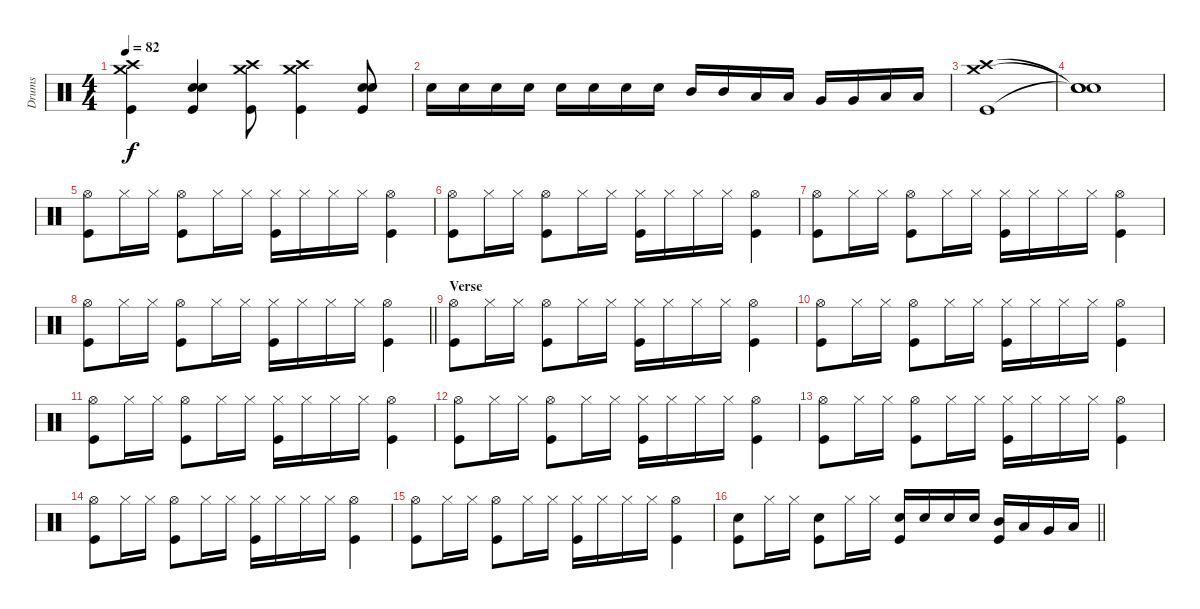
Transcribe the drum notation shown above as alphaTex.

\track ("Drums" "Drums") {instrument percussion}
\staff {score}
\articulation defaults
\ts (4 4)
\tempo 82
\clef neutral
\ks c
("Crash medium (hit)" "Crash high (hit)" "Kick (hit)").4{dy f} ("Snare (hit) 2" "Snare (hit) 2" "Kick (hit)").4 ("Crash medium (hit)" "Crash high (hit)" "Kick (hit)").8 ("Crash medium (hit)" "Crash high (hit)" "Kick (hit)").4 ("Snare (hit) 2" "Snare (hit) 2" "Kick (hit)").8 |
"Snare (hit) 2".16 "Snare (hit) 2".16 "Snare (hit) 2".16 "Snare (hit) 2".16 "Snare (hit) 2".16 "Snare (hit) 2".16 "Snare (hit) 2".16 "Snare (hit) 2".16 "Mid Tom (hit)".16 "Mid Tom (hit)".16 "Low Tom (hit)".16 "Low Tom (hit)".16 "Very Low Tom (hit)".16 "Very Low Tom (hit)".16 "Low Floor Tom (hit)".16 "Low Floor Tom (hit)".16 |
("Crash medium (hit)" "Crash high (hit)" "Kick (hit)").1 |
("Snare (hit)"{t} "Snare (hit)"{t} "Snare (hit)"{t}).1 |
("Hi-Hat (open)" "Kick (hit)").8 "Hi-Hat (closed)".16 "Hi-Hat (closed)".16 ("Hi-Hat (open)" "Kick (hit)").8 "Hi-Hat (closed)".16 "Hi-Hat (closed)".16 ("Hi-Hat (closed)" "Kick (hit)").16 "Hi-Hat (closed)".16 "Hi-Hat (closed)".16 "Hi-Hat (closed)".16 ("Hi-Hat (open)" "Kick (hit)").4 |
("Hi-Hat (open)" "Kick (hit)").8 "Hi-Hat (closed)".16 "Hi-Hat (closed)".16 ("Hi-Hat (open)" "Kick (hit)").8 "Hi-Hat (closed)".16 "Hi-Hat (closed)".16 ("Hi-Hat (closed)" "Kick (hit)").16 "Hi-Hat (closed)".16 "Hi-Hat (closed)".16 "Hi-Hat (closed)".16 ("Hi-Hat (open)" "Kick (hit)").4 |
("Hi-Hat (open)" "Kick (hit)").8 "Hi-Hat (closed)".16 "Hi-Hat (closed)".16 ("Hi-Hat (open)" "Kick (hit)").8 "Hi-Hat (closed)".16 "Hi-Hat (closed)".16 ("Hi-Hat (closed)" "Kick (hit)").16 "Hi-Hat (closed)".16 "Hi-Hat (closed)".16 "Hi-Hat (closed)".16 ("Hi-Hat (open)" "Kick (hit)").4 |
\barLineRight lightlight
("Hi-Hat (open)" "Kick (hit)").8 "Hi-Hat (closed)".16 "Hi-Hat (closed)".16 ("Hi-Hat (open)" "Kick (hit)").8 "Hi-Hat (closed)".16 "Hi-Hat (closed)".16 ("Hi-Hat (closed)" "Kick (hit)").16 "Hi-Hat (closed)".16 "Hi-Hat (closed)".16 "Hi-Hat (closed)".16 ("Hi-Hat (open)" "Kick (hit)").4 |
\section ("" "Verse")
("Hi-Hat (open)" "Kick (hit)").8 "Hi-Hat (closed)".16 "Hi-Hat (closed)".16 ("Hi-Hat (open)" "Kick (hit)").8 "Hi-Hat (closed)".16 "Hi-Hat (closed)".16 ("Hi-Hat (closed)" "Kick (hit)").16 "Hi-Hat (closed)".16 "Hi-Hat (closed)".16 "Hi-Hat (closed)".16 ("Hi-Hat (open)" "Kick (hit)").4 |
("Hi-Hat (open)" "Kick (hit)").8 "Hi-Hat (closed)".16 "Hi-Hat (closed)".16 ("Hi-Hat (open)" "Kick (hit)").8 "Hi-Hat (closed)".16 "Hi-Hat (closed)".16 ("Hi-Hat (closed)" "Kick (hit)").16 "Hi-Hat (closed)".16 "Hi-Hat (closed)".16 "Hi-Hat (closed)".16 ("Hi-Hat (open)" "Kick (hit)").4 |
("Hi-Hat (open)" "Kick (hit)").8 "Hi-Hat (closed)".16 "Hi-Hat (closed)".16 ("Hi-Hat (open)" "Kick (hit)").8 "Hi-Hat (closed)".16 "Hi-Hat (closed)".16 ("Hi-Hat (closed)" "Kick (hit)").16 "Hi-Hat (closed)".16 "Hi-Hat (closed)".16 "Hi-Hat (closed)".16 ("Hi-Hat (open)" "Kick (hit)").4 |
("Hi-Hat (open)" "Kick (hit)").8 "Hi-Hat (closed)".16 "Hi-Hat (closed)".16 ("Hi-Hat (open)" "Kick (hit)").8 "Hi-Hat (closed)".16 "Hi-Hat (closed)".16 ("Hi-Hat (closed)" "Kick (hit)").16 "Hi-Hat (closed)".16 "Hi-Hat (closed)".16 "Hi-Hat (closed)".16 ("Hi-Hat (open)" "Kick (hit)").4 |
("Hi-Hat (open)" "Kick (hit)").8 "Hi-Hat (closed)".16 "Hi-Hat (closed)".16 ("Hi-Hat (open)" "Kick (hit)").8 "Hi-Hat (closed)".16 "Hi-Hat (closed)".16 ("Hi-Hat (closed)" "Kick (hit)").16 "Hi-Hat (closed)".16 "Hi-Hat (closed)".16 "Hi-Hat (closed)".16 ("Hi-Hat (open)" "Kick (hit)").4 |
("Hi-Hat (open)" "Kick (hit)").8 "Hi-Hat (closed)".16 "Hi-Hat (closed)".16 ("Hi-Hat (open)" "Kick (hit)").8 "Hi-Hat (closed)".16 "Hi-Hat (closed)".16 ("Hi-Hat (closed)" "Kick (hit)").16 "Hi-Hat (closed)".16 "Hi-Hat (closed)".16 "Hi-Hat (closed)".16 ("Hi-Hat (open)" "Kick (hit)").4 |
("Hi-Hat (open)" "Kick (hit)").8 "Hi-Hat (closed)".16 "Hi-Hat (closed)".16 ("Hi-Hat (open)" "Kick (hit)").8 "Hi-Hat (closed)".16 "Hi-Hat (closed)".16 ("Hi-Hat (closed)" "Kick (hit)").16 "Hi-Hat (closed)".16 "Hi-Hat (closed)".16 "Hi-Hat (closed)".16 ("Hi-Hat (open)" "Kick (hit)").4 |
\barLineRight lightlight
("Snare (hit) 2" "Kick (hit)").8 "Hi-Hat (closed)".16 "Hi-Hat (closed)".16 ("Snare (hit) 2" "Kick (hit)").8 "Hi-Hat (closed)".16 "Hi-Hat (closed)".16 ("Snare (hit) 2" "Kick (hit)").16 "Snare (hit) 2".16 "Snare (hit) 2".16 "Snare (hit) 2".16 ("Mid Tom (hit)" "Kick (hit)").16 "Low Tom (hit)".16 "Very Low Tom (hit)".16 "Low Floor Tom (hit)".16
